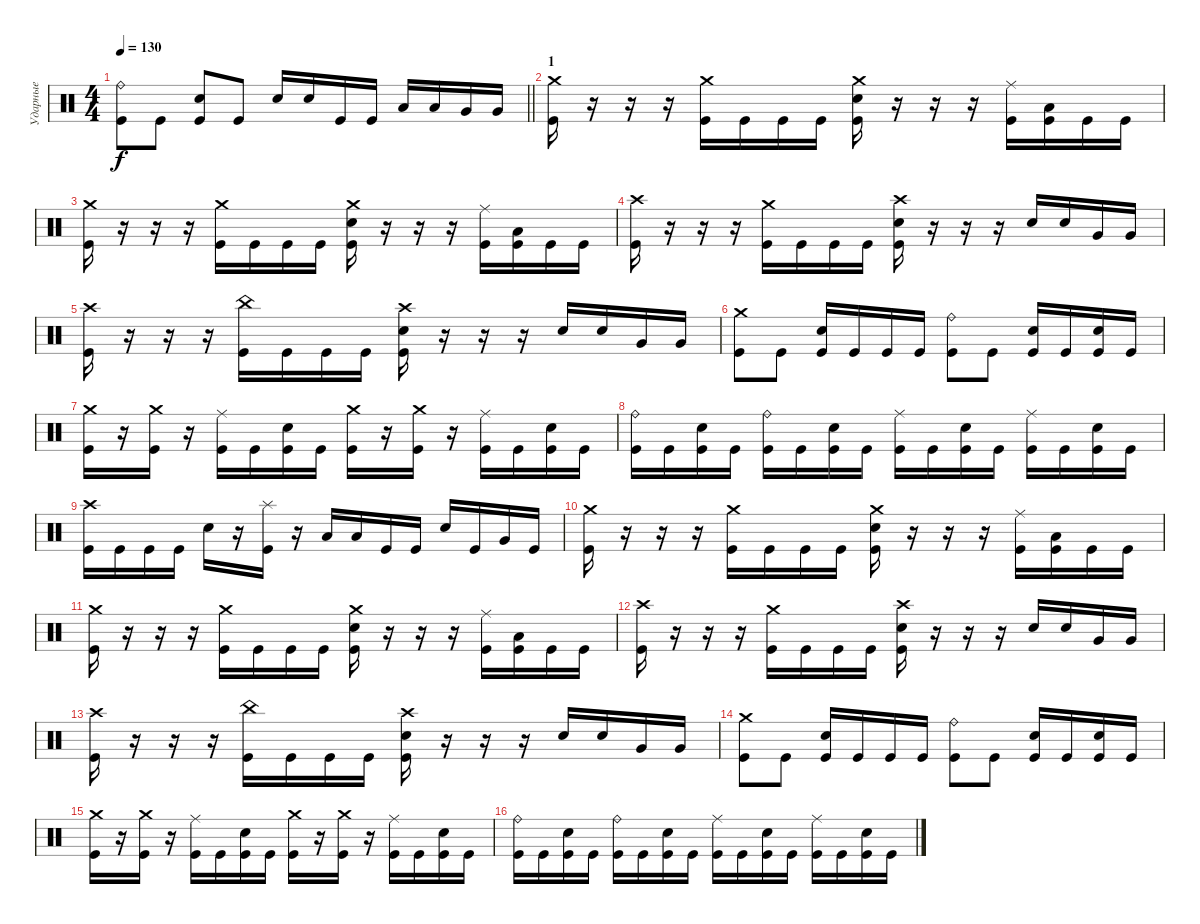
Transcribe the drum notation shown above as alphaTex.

\track ("Ударные" "Ударные") {instrument percussion}
\staff {score}
\articulation defaults
\ts (4 4)
\tempo 130
\clef neutral
\barLineRight lightlight
\ks c
("Ride (bell)" "Kick (hit)").8{dy f} "Kick (hit)".8 ("Electric Snare (hit)" "Kick (hit)").8 "Kick (hit)".8 "Electric Snare (hit)".16 "Electric Snare (hit)".16 "Kick (hit)".16 "Kick (hit)".16 "Low Floor Tom (hit)".16 "Low Floor Tom (hit)".16 "Very Low Tom (hit)".16 "Very Low Tom (hit)".16 |
\section ("" "1")
("Crash medium (hit)" "Kick (hit)").16 r.16 r.16 r.16 ("Crash medium (hit)" "Kick (hit)").16 "Kick (hit)".16 "Kick (hit)".16 "Kick (hit)".16 ("Crash medium (hit)" "Electric Snare (hit)" "Kick (hit)").16 r.16 r.16 r.16 ("Ride (middle)" "Kick (hit)").16 ("Low Tom (hit)" "Kick (hit)").16 "Kick (hit)".16 "Kick (hit)".16 |
("Crash medium (hit)" "Kick (hit)").16 r.16 r.16 r.16 ("Crash medium (hit)" "Kick (hit)").16 "Kick (hit)".16 "Kick (hit)".16 "Kick (hit)".16 ("Crash medium (hit)" "Electric Snare (hit)" "Kick (hit)").16 r.16 r.16 r.16 ("Ride (middle)" "Kick (hit)").16 ("Low Tom (hit)" "Kick (hit)").16 "Kick (hit)".16 "Kick (hit)".16 |
("Crash high (hit)" "Kick (hit)").16 r.16 r.16 r.16 ("Crash medium (hit)" "Kick (hit)").16 "Kick (hit)".16 "Kick (hit)".16 "Kick (hit)".16 ("Crash high (hit)" "Electric Snare (hit)" "Kick (hit)").16 r.16 r.16 r.16 "Electric Snare (hit)".16 "Electric Snare (hit)".16 "Very Low Tom (hit)".16 "Very Low Tom (hit)".16 |
("Crash high (hit)" "Kick (hit)").16 r.16 r.16 r.16 ("China (hit)" "Kick (hit)").16 "Kick (hit)".16 "Kick (hit)".16 "Kick (hit)".16 ("Crash high (hit)" "Electric Snare (hit)" "Kick (hit)").16 r.16 r.16 r.16 "Electric Snare (hit)".16 "Electric Snare (hit)".16 "Very Low Tom (hit)".16 "Very Low Tom (hit)".16 |
("Crash medium (hit)" "Kick (hit)").8 "Kick (hit)".8 ("Electric Snare (hit)" "Kick (hit)").16 "Kick (hit)".16 "Kick (hit)".16 "Kick (hit)".16 ("Ride (bell)" "Kick (hit)").8 "Kick (hit)".8 ("Electric Snare (hit)" "Kick (hit)").16 "Kick (hit)".16 ("Electric Snare (hit)" "Kick (hit)").16 "Kick (hit)".16 |
("Crash medium (hit)" "Kick (hit)").16 r.16 ("Crash medium (hit)" "Kick (hit)").16 r.16 ("Ride (middle)" "Kick (hit)").16 "Kick (hit)".16 ("Electric Snare (hit)" "Kick (hit)").16 "Kick (hit)".16 ("Crash medium (hit)" "Kick (hit)").16 r.16 ("Crash medium (hit)" "Kick (hit)").16 r.16 ("Ride (middle)" "Kick (hit)").16 "Kick (hit)".16 ("Electric Snare (hit)" "Kick (hit)").16 "Kick (hit)".16 |
("Ride (bell)" "Kick (hit)").16 "Kick (hit)".16 ("Electric Snare (hit)" "Kick (hit)").16 "Kick (hit)".16 ("Ride (bell)" "Kick (hit)").16 "Kick (hit)".16 ("Electric Snare (hit)" "Kick (hit)").16 "Kick (hit)".16 ("Ride (middle)" "Kick (hit)").16 "Kick (hit)".16 ("Electric Snare (hit)" "Kick (hit)").16 "Kick (hit)".16 ("Ride (middle)" "Kick (hit)").16 "Kick (hit)".16 ("Electric Snare (hit)" "Kick (hit)").16 "Kick (hit)".16 |
("Crash high (hit)" "Kick (hit)").16 "Kick (hit)".16 "Kick (hit)".16 "Kick (hit)".16 "Electric Snare (hit)".16 r.16 ("Splash (hit)" "Kick (hit)").16 r.16 "Low Tom (hit)".16 "Low Tom (hit)".16 "Kick (hit)".16 "Kick (hit)".16 "Electric Snare (hit)".16 "Kick (hit)".16 "Very Low Tom (hit)".16 "Kick (hit)".16 |
("Crash medium (hit)" "Kick (hit)").16 r.16 r.16 r.16 ("Crash medium (hit)" "Kick (hit)").16 "Kick (hit)".16 "Kick (hit)".16 "Kick (hit)".16 ("Crash medium (hit)" "Electric Snare (hit)" "Kick (hit)").16 r.16 r.16 r.16 ("Ride (middle)" "Kick (hit)").16 ("Low Tom (hit)" "Kick (hit)").16 "Kick (hit)".16 "Kick (hit)".16 |
("Crash medium (hit)" "Kick (hit)").16 r.16 r.16 r.16 ("Crash medium (hit)" "Kick (hit)").16 "Kick (hit)".16 "Kick (hit)".16 "Kick (hit)".16 ("Crash medium (hit)" "Electric Snare (hit)" "Kick (hit)").16 r.16 r.16 r.16 ("Ride (middle)" "Kick (hit)").16 ("Low Tom (hit)" "Kick (hit)").16 "Kick (hit)".16 "Kick (hit)".16 |
("Crash high (hit)" "Kick (hit)").16 r.16 r.16 r.16 ("Crash medium (hit)" "Kick (hit)").16 "Kick (hit)".16 "Kick (hit)".16 "Kick (hit)".16 ("Crash high (hit)" "Electric Snare (hit)" "Kick (hit)").16 r.16 r.16 r.16 "Electric Snare (hit)".16 "Electric Snare (hit)".16 "Very Low Tom (hit)".16 "Very Low Tom (hit)".16 |
("Crash high (hit)" "Kick (hit)").16 r.16 r.16 r.16 ("China (hit)" "Kick (hit)").16 "Kick (hit)".16 "Kick (hit)".16 "Kick (hit)".16 ("Crash high (hit)" "Electric Snare (hit)" "Kick (hit)").16 r.16 r.16 r.16 "Electric Snare (hit)".16 "Electric Snare (hit)".16 "Very Low Tom (hit)".16 "Very Low Tom (hit)".16 |
("Crash medium (hit)" "Kick (hit)").8 "Kick (hit)".8 ("Electric Snare (hit)" "Kick (hit)").16 "Kick (hit)".16 "Kick (hit)".16 "Kick (hit)".16 ("Ride (bell)" "Kick (hit)").8 "Kick (hit)".8 ("Electric Snare (hit)" "Kick (hit)").16 "Kick (hit)".16 ("Electric Snare (hit)" "Kick (hit)").16 "Kick (hit)".16 |
("Crash medium (hit)" "Kick (hit)").16 r.16 ("Crash medium (hit)" "Kick (hit)").16 r.16 ("Ride (middle)" "Kick (hit)").16 "Kick (hit)".16 ("Electric Snare (hit)" "Kick (hit)").16 "Kick (hit)".16 ("Crash medium (hit)" "Kick (hit)").16 r.16 ("Crash medium (hit)" "Kick (hit)").16 r.16 ("Ride (middle)" "Kick (hit)").16 "Kick (hit)".16 ("Electric Snare (hit)" "Kick (hit)").16 "Kick (hit)".16 |
("Ride (bell)" "Kick (hit)").16 "Kick (hit)".16 ("Electric Snare (hit)" "Kick (hit)").16 "Kick (hit)".16 ("Ride (bell)" "Kick (hit)").16 "Kick (hit)".16 ("Electric Snare (hit)" "Kick (hit)").16 "Kick (hit)".16 ("Ride (middle)" "Kick (hit)").16 "Kick (hit)".16 ("Electric Snare (hit)" "Kick (hit)").16 "Kick (hit)".16 ("Ride (middle)" "Kick (hit)").16 "Kick (hit)".16 ("Electric Snare (hit)" "Kick (hit)").16 "Kick (hit)".16
